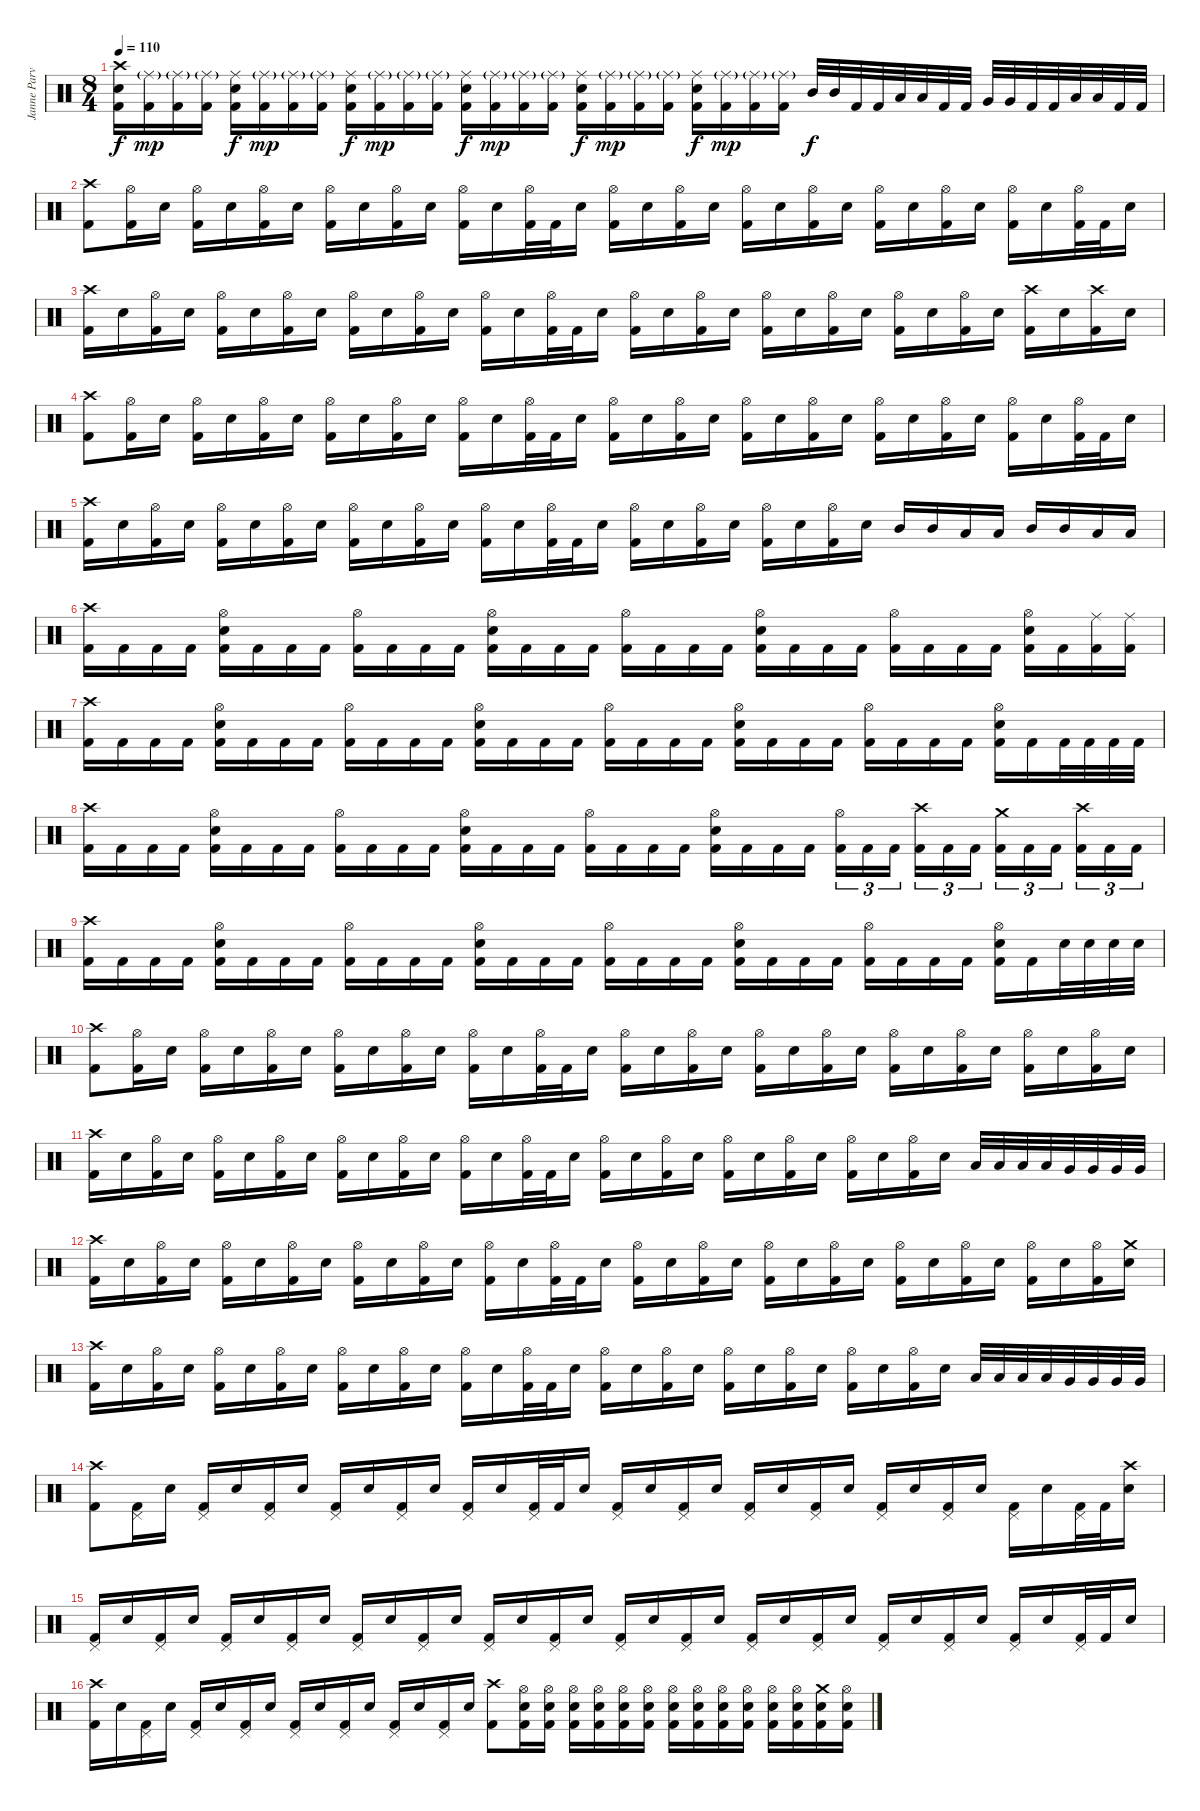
\track ("Janne Parviainen" "Janne Parv") {instrument percussion}
\staff {score}
\articulation defaults
\ts (8 4)
\tempo 110
\clef neutral
\ks c
("Crash high (hit)" "Electric Snare (hit)" "Kick (hit) 2").16{dy f} ("Ride (middle)"{g} "Kick (hit) 2").16{dy mp} ("Ride (middle)"{g} "Kick (hit) 2").16 ("Ride (middle)"{g} "Kick (hit) 2").16 ("Ride (middle)" "Electric Snare (hit)" "Kick (hit) 2").16{dy f} ("Ride (middle)"{g} "Kick (hit) 2").16{dy mp} ("Ride (middle)"{g} "Kick (hit) 2").16 ("Ride (middle)"{g} "Kick (hit) 2").16 ("Ride (middle)" "Electric Snare (hit)" "Kick (hit) 2").16{dy f} ("Ride (middle)"{g} "Kick (hit) 2").16{dy mp} ("Ride (middle)"{g} "Kick (hit) 2").16 ("Ride (middle)"{g} "Kick (hit) 2").16 ("Ride (middle)" "Electric Snare (hit)" "Kick (hit) 2").16{dy f} ("Ride (middle)"{g} "Kick (hit) 2").16{dy mp} ("Ride (middle)"{g} "Kick (hit) 2").16 ("Ride (middle)"{g} "Kick (hit) 2").16 ("Ride (middle)" "Electric Snare (hit)" "Kick (hit) 2").16{dy f} ("Ride (middle)"{g} "Kick (hit) 2").16{dy mp} ("Ride (middle)"{g} "Kick (hit) 2").16 ("Ride (middle)"{g} "Kick (hit) 2").16 ("Ride (middle)" "Electric Snare (hit)" "Kick (hit) 2").16{dy f} ("Ride (middle)"{g} "Kick (hit) 2").16{dy mp} ("Ride (middle)"{g} "Kick (hit) 2").16 ("Ride (middle)"{g} "Kick (hit) 2").16 "Mid Tom (hit)".32{dy f} "Mid Tom (hit)".32 "Kick (hit) 2".32 "Kick (hit) 2".32 "Low Tom (hit)".32 "Low Tom (hit)".32 "Kick (hit) 2".32 "Kick (hit) 2".32 "Very Low Tom (hit)".32 "Very Low Tom (hit)".32 "Kick (hit) 2".32 "Kick (hit) 2".32 "Low Floor Tom (hit)".32 "Low Floor Tom (hit)".32 "Kick (hit) 2".32 "Kick (hit) 2".32 |
("Crash high (hit)" "Kick (hit) 2").8 ("Hi-Hat (open)" "Kick (hit) 2").16 "Electric Snare (hit)".16 ("Hi-Hat (open)" "Kick (hit) 2").16 "Electric Snare (hit)".16 ("Hi-Hat (open)" "Kick (hit) 2").16 "Electric Snare (hit)".16 ("Hi-Hat (open)" "Kick (hit) 2").16 "Electric Snare (hit)".16 ("Hi-Hat (open)" "Kick (hit) 2").16 "Electric Snare (hit)".16 ("Hi-Hat (open)" "Kick (hit) 2").16 "Electric Snare (hit)".16 ("Hi-Hat (open)" "Kick (hit) 2").32 "Kick (hit) 2".32 "Electric Snare (hit)".16 ("Hi-Hat (open)" "Kick (hit) 2").16 "Electric Snare (hit)".16 ("Hi-Hat (open)" "Kick (hit) 2").16 "Electric Snare (hit)".16 ("Hi-Hat (open)" "Kick (hit) 2").16 "Electric Snare (hit)".16 ("Hi-Hat (open)" "Kick (hit) 2").16 "Electric Snare (hit)".16 ("Hi-Hat (open)" "Kick (hit) 2").16 "Electric Snare (hit)".16 ("Hi-Hat (open)" "Kick (hit) 2").16 "Electric Snare (hit)".16 ("Hi-Hat (open)" "Kick (hit) 2").16 "Electric Snare (hit)".16 ("Hi-Hat (open)" "Kick (hit) 2").32 "Kick (hit) 2".32 "Electric Snare (hit)".16 |
("Crash high (hit)" "Kick (hit) 2").16 "Electric Snare (hit)".16 ("Hi-Hat (open)" "Kick (hit) 2").16 "Electric Snare (hit)".16 ("Hi-Hat (open)" "Kick (hit) 2").16 "Electric Snare (hit)".16 ("Hi-Hat (open)" "Kick (hit) 2").16 "Electric Snare (hit)".16 ("Hi-Hat (open)" "Kick (hit) 2").16 "Electric Snare (hit)".16 ("Hi-Hat (open)" "Kick (hit) 2").16 "Electric Snare (hit)".16 ("Hi-Hat (open)" "Kick (hit) 2").16 "Electric Snare (hit)".16 ("Hi-Hat (open)" "Kick (hit) 2").32 "Kick (hit) 2".32 "Electric Snare (hit)".16 ("Hi-Hat (open)" "Kick (hit) 2").16 "Electric Snare (hit)".16 ("Hi-Hat (open)" "Kick (hit) 2").16 "Electric Snare (hit)".16 ("Hi-Hat (open)" "Kick (hit) 2").16 "Electric Snare (hit)".16 ("Hi-Hat (open)" "Kick (hit) 2").16 "Electric Snare (hit)".16 ("Hi-Hat (open)" "Kick (hit) 2").16 "Electric Snare (hit)".16 ("Hi-Hat (open)" "Kick (hit) 2").16 "Electric Snare (hit)".16 ("Crash high (hit)" "Kick (hit) 2").16 "Electric Snare (hit)".16 ("Crash high (hit)" "Kick (hit) 2").16 "Electric Snare (hit)".16 |
("Crash high (hit)" "Kick (hit) 2").8 ("Hi-Hat (open)" "Kick (hit) 2").16 "Electric Snare (hit)".16 ("Hi-Hat (open)" "Kick (hit) 2").16 "Electric Snare (hit)".16 ("Hi-Hat (open)" "Kick (hit) 2").16 "Electric Snare (hit)".16 ("Hi-Hat (open)" "Kick (hit) 2").16 "Electric Snare (hit)".16 ("Hi-Hat (open)" "Kick (hit) 2").16 "Electric Snare (hit)".16 ("Hi-Hat (open)" "Kick (hit) 2").16 "Electric Snare (hit)".16 ("Hi-Hat (open)" "Kick (hit) 2").32 "Kick (hit) 2".32 "Electric Snare (hit)".16 ("Hi-Hat (open)" "Kick (hit) 2").16 "Electric Snare (hit)".16 ("Hi-Hat (open)" "Kick (hit) 2").16 "Electric Snare (hit)".16 ("Hi-Hat (open)" "Kick (hit) 2").16 "Electric Snare (hit)".16 ("Hi-Hat (open)" "Kick (hit) 2").16 "Electric Snare (hit)".16 ("Hi-Hat (open)" "Kick (hit) 2").16 "Electric Snare (hit)".16 ("Hi-Hat (open)" "Kick (hit) 2").16 "Electric Snare (hit)".16 ("Hi-Hat (open)" "Kick (hit) 2").16 "Electric Snare (hit)".16 ("Hi-Hat (open)" "Kick (hit) 2").32 "Kick (hit) 2".32 "Electric Snare (hit)".16 |
("Crash high (hit)" "Kick (hit) 2").16 "Electric Snare (hit)".16 ("Hi-Hat (open)" "Kick (hit) 2").16 "Electric Snare (hit)".16 ("Hi-Hat (open)" "Kick (hit) 2").16 "Electric Snare (hit)".16 ("Hi-Hat (open)" "Kick (hit) 2").16 "Electric Snare (hit)".16 ("Hi-Hat (open)" "Kick (hit) 2").16 "Electric Snare (hit)".16 ("Hi-Hat (open)" "Kick (hit) 2").16 "Electric Snare (hit)".16 ("Hi-Hat (open)" "Kick (hit) 2").16 "Electric Snare (hit)".16 ("Hi-Hat (open)" "Kick (hit) 2").32 "Kick (hit) 2".32 "Electric Snare (hit)".16 ("Hi-Hat (open)" "Kick (hit) 2").16 "Electric Snare (hit)".16 ("Hi-Hat (open)" "Kick (hit) 2").16 "Electric Snare (hit)".16 ("Hi-Hat (open)" "Kick (hit) 2").16 "Electric Snare (hit)".16 ("Hi-Hat (open)" "Kick (hit) 2").16 "Electric Snare (hit)".16 "Mid Tom (hit)".16 "Mid Tom (hit)".16 "Low Tom (hit)".16 "Low Tom (hit)".16 "Mid Tom (hit)".16 "Mid Tom (hit)".16 "Low Tom (hit)".16 "Low Tom (hit)".16 |
("Crash high (hit)" "Kick (hit) 2").16 "Kick (hit) 2".16 "Kick (hit) 2".16 "Kick (hit) 2".16 ("Hi-Hat (open)" "Electric Snare (hit)" "Kick (hit) 2").16 "Kick (hit) 2".16 "Kick (hit) 2".16 "Kick (hit) 2".16 ("Hi-Hat (open)" "Kick (hit) 2").16 "Kick (hit) 2".16 "Kick (hit) 2".16 "Kick (hit) 2".16 ("Hi-Hat (open)" "Electric Snare (hit)" "Kick (hit) 2").16 "Kick (hit) 2".16 "Kick (hit) 2".16 "Kick (hit) 2".16 ("Hi-Hat (open)" "Kick (hit) 2").16 "Kick (hit) 2".16 "Kick (hit) 2".16 "Kick (hit) 2".16 ("Hi-Hat (open)" "Electric Snare (hit)" "Kick (hit) 2").16 "Kick (hit) 2".16 "Kick (hit) 2".16 "Kick (hit) 2".16 ("Hi-Hat (open)" "Kick (hit) 2").16 "Kick (hit) 2".16 "Kick (hit) 2".16 "Kick (hit) 2".16 ("Hi-Hat (open)" "Electric Snare (hit)" "Kick (hit) 2").16 "Kick (hit) 2".16 ("Ride (middle)" "Kick (hit) 2").16 ("Ride (middle)" "Kick (hit) 2").16 |
("Crash high (hit)" "Kick (hit) 2").16 "Kick (hit) 2".16 "Kick (hit) 2".16 "Kick (hit) 2".16 ("Hi-Hat (open)" "Electric Snare (hit)" "Kick (hit) 2").16 "Kick (hit) 2".16 "Kick (hit) 2".16 "Kick (hit) 2".16 ("Hi-Hat (open)" "Kick (hit) 2").16 "Kick (hit) 2".16 "Kick (hit) 2".16 "Kick (hit) 2".16 ("Hi-Hat (open)" "Electric Snare (hit)" "Kick (hit) 2").16 "Kick (hit) 2".16 "Kick (hit) 2".16 "Kick (hit) 2".16 ("Hi-Hat (open)" "Kick (hit) 2").16 "Kick (hit) 2".16 "Kick (hit) 2".16 "Kick (hit) 2".16 ("Hi-Hat (open)" "Electric Snare (hit)" "Kick (hit) 2").16 "Kick (hit) 2".16 "Kick (hit) 2".16 "Kick (hit) 2".16 ("Hi-Hat (open)" "Kick (hit) 2").16 "Kick (hit) 2".16 "Kick (hit) 2".16 "Kick (hit) 2".16 ("Hi-Hat (open)" "Electric Snare (hit)" "Kick (hit) 2").16 "Kick (hit) 2".16 "Kick (hit) 2".32 "Kick (hit) 2".32 "Kick (hit) 2".32 "Kick (hit) 2".32 |
("Crash high (hit)" "Kick (hit) 2").16 "Kick (hit) 2".16 "Kick (hit) 2".16 "Kick (hit) 2".16 ("Hi-Hat (open)" "Electric Snare (hit)" "Kick (hit) 2").16 "Kick (hit) 2".16 "Kick (hit) 2".16 "Kick (hit) 2".16 ("Hi-Hat (open)" "Kick (hit) 2").16 "Kick (hit) 2".16 "Kick (hit) 2".16 "Kick (hit) 2".16 ("Hi-Hat (open)" "Electric Snare (hit)" "Kick (hit) 2").16 "Kick (hit) 2".16 "Kick (hit) 2".16 "Kick (hit) 2".16 ("Hi-Hat (open)" "Kick (hit) 2").16 "Kick (hit) 2".16 "Kick (hit) 2".16 "Kick (hit) 2".16 ("Hi-Hat (open)" "Electric Snare (hit)" "Kick (hit) 2").16 "Kick (hit) 2".16 "Kick (hit) 2".16 "Kick (hit) 2".16 ("Hi-Hat (open)" "Kick (hit) 2").16{tu (3 2)} "Kick (hit) 2".16{tu (3 2)} "Kick (hit) 2".16{tu (3 2) beam splitsecondary} ("Crash high (hit)" "Kick (hit) 2").16{tu (3 2)} "Kick (hit) 2".16{tu (3 2)} "Kick (hit) 2".16{tu (3 2)} ("Crash medium (hit)" "Kick (hit) 2").16{tu (3 2)} "Kick (hit) 2".16{tu (3 2)} "Kick (hit) 2".16{tu (3 2) beam splitsecondary} ("Crash high (hit)" "Kick (hit) 2").16{tu (3 2)} "Kick (hit) 2".16{tu (3 2)} "Kick (hit) 2".16{tu (3 2)} |
("Crash high (hit)" "Kick (hit) 2").16 "Kick (hit) 2".16 "Kick (hit) 2".16 "Kick (hit) 2".16 ("Hi-Hat (open)" "Electric Snare (hit)" "Kick (hit) 2").16 "Kick (hit) 2".16 "Kick (hit) 2".16 "Kick (hit) 2".16 ("Hi-Hat (open)" "Kick (hit) 2").16 "Kick (hit) 2".16 "Kick (hit) 2".16 "Kick (hit) 2".16 ("Hi-Hat (open)" "Electric Snare (hit)" "Kick (hit) 2").16 "Kick (hit) 2".16 "Kick (hit) 2".16 "Kick (hit) 2".16 ("Hi-Hat (open)" "Kick (hit) 2").16 "Kick (hit) 2".16 "Kick (hit) 2".16 "Kick (hit) 2".16 ("Hi-Hat (open)" "Electric Snare (hit)" "Kick (hit) 2").16 "Kick (hit) 2".16 "Kick (hit) 2".16 "Kick (hit) 2".16 ("Hi-Hat (open)" "Kick (hit) 2").16 "Kick (hit) 2".16 "Kick (hit) 2".16 "Kick (hit) 2".16 ("Hi-Hat (open)" "Electric Snare (hit)" "Kick (hit) 2").16 "Kick (hit) 2".16 "Electric Snare (hit)".32 "Electric Snare (hit)".32 "Electric Snare (hit)".32 "Electric Snare (hit)".32 |
("Crash high (hit)" "Kick (hit) 2").8 ("Hi-Hat (open)" "Kick (hit) 2").16 "Electric Snare (hit)".16 ("Hi-Hat (open)" "Kick (hit) 2").16 "Electric Snare (hit)".16 ("Hi-Hat (open)" "Kick (hit) 2").16 "Electric Snare (hit)".16 ("Hi-Hat (open)" "Kick (hit) 2").16 "Electric Snare (hit)".16 ("Hi-Hat (open)" "Kick (hit) 2").16 "Electric Snare (hit)".16 ("Hi-Hat (open)" "Kick (hit) 2").16 "Electric Snare (hit)".16 ("Hi-Hat (open)" "Kick (hit) 2").32 "Kick (hit) 2".32 "Electric Snare (hit)".16 ("Hi-Hat (open)" "Kick (hit) 2").16 "Electric Snare (hit)".16 ("Hi-Hat (open)" "Kick (hit) 2").16 "Electric Snare (hit)".16 ("Hi-Hat (open)" "Kick (hit) 2").16 "Electric Snare (hit)".16 ("Hi-Hat (open)" "Kick (hit) 2").16 "Electric Snare (hit)".16 ("Hi-Hat (open)" "Kick (hit) 2").16 "Electric Snare (hit)".16 ("Hi-Hat (open)" "Kick (hit) 2").16 "Electric Snare (hit)".16 ("Hi-Hat (open)" "Kick (hit) 2").16 "Electric Snare (hit)".16 ("Hi-Hat (open)" "Kick (hit) 2").16 "Electric Snare (hit)".16 |
("Crash high (hit)" "Kick (hit) 2").16 "Electric Snare (hit)".16 ("Hi-Hat (open)" "Kick (hit) 2").16 "Electric Snare (hit)".16 ("Hi-Hat (open)" "Kick (hit) 2").16 "Electric Snare (hit)".16 ("Hi-Hat (open)" "Kick (hit) 2").16 "Electric Snare (hit)".16 ("Hi-Hat (open)" "Kick (hit) 2").16 "Electric Snare (hit)".16 ("Hi-Hat (open)" "Kick (hit) 2").16 "Electric Snare (hit)".16 ("Hi-Hat (open)" "Kick (hit) 2").16 "Electric Snare (hit)".16 ("Hi-Hat (open)" "Kick (hit) 2").32 "Kick (hit) 2".32 "Electric Snare (hit)".16 ("Hi-Hat (open)" "Kick (hit) 2").16 "Electric Snare (hit)".16 ("Hi-Hat (open)" "Kick (hit) 2").16 "Electric Snare (hit)".16 ("Hi-Hat (open)" "Kick (hit) 2").16 "Electric Snare (hit)".16 ("Hi-Hat (open)" "Kick (hit) 2").16 "Electric Snare (hit)".16 ("Hi-Hat (open)" "Kick (hit) 2").16 "Electric Snare (hit)".16 ("Hi-Hat (open)" "Kick (hit) 2").16 "Electric Snare (hit)".16 "Low Tom (hit)".32 "Low Tom (hit)".32 "Low Tom (hit)".32 "Low Tom (hit)".32 "Very Low Tom (hit)".32 "Very Low Tom (hit)".32 "Very Low Tom (hit)".32 "Very Low Tom (hit)".32 |
("Crash high (hit)" "Kick (hit) 2").16 "Electric Snare (hit)".16 ("Hi-Hat (open)" "Kick (hit) 2").16 "Electric Snare (hit)".16 ("Hi-Hat (open)" "Kick (hit) 2").16 "Electric Snare (hit)".16 ("Hi-Hat (open)" "Kick (hit) 2").16 "Electric Snare (hit)".16 ("Hi-Hat (open)" "Kick (hit) 2").16 "Electric Snare (hit)".16 ("Hi-Hat (open)" "Kick (hit) 2").16 "Electric Snare (hit)".16 ("Hi-Hat (open)" "Kick (hit) 2").16 "Electric Snare (hit)".16 ("Hi-Hat (open)" "Kick (hit) 2").32 "Kick (hit) 2".32 "Electric Snare (hit)".16 ("Hi-Hat (open)" "Kick (hit) 2").16 "Electric Snare (hit)".16 ("Hi-Hat (open)" "Kick (hit) 2").16 "Electric Snare (hit)".16 ("Hi-Hat (open)" "Kick (hit) 2").16 "Electric Snare (hit)".16 ("Hi-Hat (open)" "Kick (hit) 2").16 "Electric Snare (hit)".16 ("Hi-Hat (open)" "Kick (hit) 2").16 "Electric Snare (hit)".16 ("Hi-Hat (open)" "Kick (hit) 2").16 "Electric Snare (hit)".16 ("Hi-Hat (open)" "Kick (hit) 2").16 "Electric Snare (hit)".16 ("Hi-Hat (open)" "Kick (hit) 2").16 ("Crash medium (hit)" "Electric Snare (hit)").16 |
("Crash high (hit)" "Kick (hit) 2").16 "Electric Snare (hit)".16 ("Hi-Hat (open)" "Kick (hit) 2").16 "Electric Snare (hit)".16 ("Hi-Hat (open)" "Kick (hit) 2").16 "Electric Snare (hit)".16 ("Hi-Hat (open)" "Kick (hit) 2").16 "Electric Snare (hit)".16 ("Hi-Hat (open)" "Kick (hit) 2").16 "Electric Snare (hit)".16 ("Hi-Hat (open)" "Kick (hit) 2").16 "Electric Snare (hit)".16 ("Hi-Hat (open)" "Kick (hit) 2").16 "Electric Snare (hit)".16 ("Hi-Hat (open)" "Kick (hit) 2").32 "Kick (hit) 2".32 "Electric Snare (hit)".16 ("Hi-Hat (open)" "Kick (hit) 2").16 "Electric Snare (hit)".16 ("Hi-Hat (open)" "Kick (hit) 2").16 "Electric Snare (hit)".16 ("Hi-Hat (open)" "Kick (hit) 2").16 "Electric Snare (hit)".16 ("Hi-Hat (open)" "Kick (hit) 2").16 "Electric Snare (hit)".16 ("Hi-Hat (open)" "Kick (hit) 2").16 "Electric Snare (hit)".16 ("Hi-Hat (open)" "Kick (hit) 2").16 "Electric Snare (hit)".16 "Low Tom (hit)".32 "Low Tom (hit)".32 "Low Tom (hit)".32 "Low Tom (hit)".32 "Very Low Tom (hit)".32 "Very Low Tom (hit)".32 "Very Low Tom (hit)".32 "Very Low Tom (hit)".32 |
("Crash high (hit)" "Kick (hit) 2").8 ("Pedal Hi-Hat (hit)" "Kick (hit) 2").16 "Electric Snare (hit)".16 ("Pedal Hi-Hat (hit)" "Kick (hit) 2").16 "Electric Snare (hit)".16 ("Pedal Hi-Hat (hit)" "Kick (hit) 2").16 "Electric Snare (hit)".16 ("Pedal Hi-Hat (hit)" "Kick (hit) 2").16 "Electric Snare (hit)".16 ("Pedal Hi-Hat (hit)" "Kick (hit) 2").16 "Electric Snare (hit)".16 ("Pedal Hi-Hat (hit)" "Kick (hit) 2").16 "Electric Snare (hit)".16 ("Pedal Hi-Hat (hit)" "Kick (hit) 2").32 "Kick (hit) 2".32 "Electric Snare (hit)".16 ("Pedal Hi-Hat (hit)" "Kick (hit) 2").16 "Electric Snare (hit)".16 ("Pedal Hi-Hat (hit)" "Kick (hit) 2").16 "Electric Snare (hit)".16 ("Pedal Hi-Hat (hit)" "Kick (hit) 2").16 "Electric Snare (hit)".16 ("Pedal Hi-Hat (hit)" "Kick (hit) 2").16 "Electric Snare (hit)".16 ("Pedal Hi-Hat (hit)" "Kick (hit) 2").16 "Electric Snare (hit)".16 ("Pedal Hi-Hat (hit)" "Kick (hit) 2").16 "Electric Snare (hit)".16 ("Pedal Hi-Hat (hit)" "Kick (hit) 2").16 "Electric Snare (hit)".16 ("Pedal Hi-Hat (hit)" "Kick (hit) 2").32 "Kick (hit) 2".32 ("Crash high (hit)" "Electric Snare (hit)").16 |
("Pedal Hi-Hat (hit)" "Kick (hit) 2").16 "Electric Snare (hit)".16 ("Pedal Hi-Hat (hit)" "Kick (hit) 2").16 "Electric Snare (hit)".16 ("Pedal Hi-Hat (hit)" "Kick (hit) 2").16 "Electric Snare (hit)".16 ("Pedal Hi-Hat (hit)" "Kick (hit) 2").16 "Electric Snare (hit)".16 ("Pedal Hi-Hat (hit)" "Kick (hit) 2").16 "Electric Snare (hit)".16 ("Pedal Hi-Hat (hit)" "Kick (hit) 2").16 "Electric Snare (hit)".16 ("Pedal Hi-Hat (hit)" "Kick (hit) 2").16 "Electric Snare (hit)".16 ("Pedal Hi-Hat (hit)" "Kick (hit) 2").16 "Electric Snare (hit)".16 ("Pedal Hi-Hat (hit)" "Kick (hit) 2").16 "Electric Snare (hit)".16 ("Pedal Hi-Hat (hit)" "Kick (hit) 2").16 "Electric Snare (hit)".16 ("Pedal Hi-Hat (hit)" "Kick (hit) 2").16 "Electric Snare (hit)".16 ("Pedal Hi-Hat (hit)" "Kick (hit) 2").16 "Electric Snare (hit)".16 ("Pedal Hi-Hat (hit)" "Kick (hit) 2").16 "Electric Snare (hit)".16 ("Pedal Hi-Hat (hit)" "Kick (hit) 2").16 "Electric Snare (hit)".16 ("Pedal Hi-Hat (hit)" "Kick (hit) 2").16 "Electric Snare (hit)".16 ("Pedal Hi-Hat (hit)" "Kick (hit) 2").32 "Kick (hit) 2".32 "Electric Snare (hit)".16 |
("Crash high (hit)" "Kick (hit) 2").16 "Electric Snare (hit)".16 ("Pedal Hi-Hat (hit)" "Kick (hit) 2").16 "Electric Snare (hit)".16 ("Pedal Hi-Hat (hit)" "Kick (hit) 2").16 "Electric Snare (hit)".16 ("Pedal Hi-Hat (hit)" "Kick (hit) 2").16 "Electric Snare (hit)".16 ("Pedal Hi-Hat (hit)" "Kick (hit) 2").16 "Electric Snare (hit)".16 ("Pedal Hi-Hat (hit)" "Kick (hit) 2").16 "Electric Snare (hit)".16 ("Pedal Hi-Hat (hit)" "Kick (hit) 2").16 "Electric Snare (hit)".16 ("Pedal Hi-Hat (hit)" "Kick (hit) 2").16 "Electric Snare (hit)".16 ("Crash high (hit)" "Kick (hit) 2").8 ("Hi-Hat (open)" "Electric Snare (hit)" "Kick (hit) 2").16 ("Hi-Hat (open)" "Electric Snare (hit)" "Kick (hit) 2").16 ("Hi-Hat (open)" "Electric Snare (hit)" "Kick (hit) 2").16 ("Hi-Hat (open)" "Electric Snare (hit)" "Kick (hit) 2").16 ("Hi-Hat (open)" "Electric Snare (hit)" "Kick (hit) 2").16 ("Hi-Hat (open)" "Electric Snare (hit)" "Kick (hit) 2").16 ("Hi-Hat (open)" "Electric Snare (hit)" "Kick (hit) 2").16 ("Hi-Hat (open)" "Electric Snare (hit)" "Kick (hit) 2").16 ("Hi-Hat (open)" "Electric Snare (hit)" "Kick (hit) 2").16 ("Hi-Hat (open)" "Electric Snare (hit)" "Kick (hit) 2").16 ("Hi-Hat (open)" "Electric Snare (hit)" "Kick (hit) 2").16 ("Hi-Hat (open)" "Electric Snare (hit)" "Kick (hit) 2").16 ("Crash medium (hit)" "Electric Snare (hit)" "Kick (hit) 2").16 ("Hi-Hat (open)" "Electric Snare (hit)" "Kick (hit) 2").16
